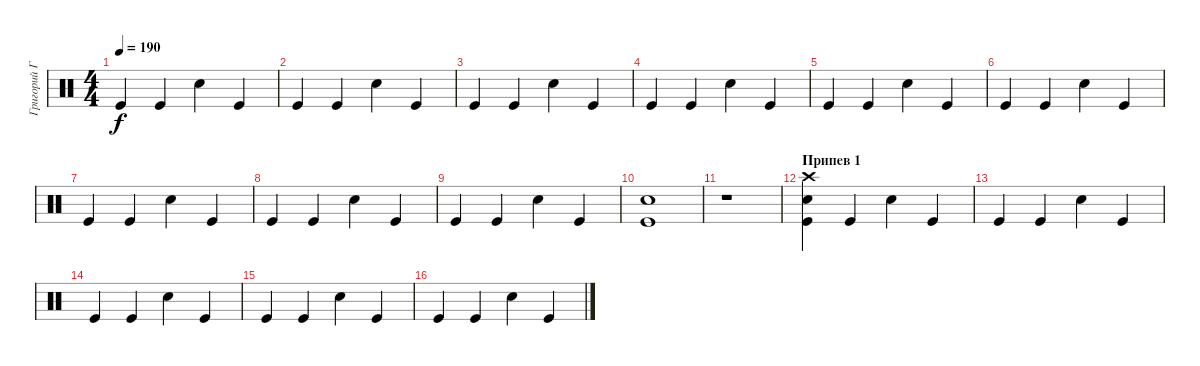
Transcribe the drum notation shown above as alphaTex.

\track ("Григорий Габерман" "Григорий Г") {instrument percussion}
\staff {score}
\articulation defaults
\ts (4 4)
\tempo 190
\clef neutral
\ks c "Kick (hit)".4{dy f} "Kick (hit)".4 "Snare (hit) 2".4 "Kick (hit)".4
|
"Kick (hit)".4 "Kick (hit)".4 "Snare (hit) 2".4 "Kick (hit)".4 |
"Kick (hit)".4 "Kick (hit)".4 "Snare (hit) 2".4 "Kick (hit)".4 |
"Kick (hit)".4 "Kick (hit)".4 "Snare (hit) 2".4 "Kick (hit)".4 |
"Kick (hit)".4 "Kick (hit)".4 "Snare (hit) 2".4 "Kick (hit)".4 |
"Kick (hit)".4 "Kick (hit)".4 "Snare (hit) 2".4 "Kick (hit)".4 |
"Kick (hit)".4 "Kick (hit)".4 "Snare (hit) 2".4 "Kick (hit)".4 |
"Kick (hit)".4 "Kick (hit)".4 "Snare (hit) 2".4 "Kick (hit)".4 |
"Kick (hit)".4 "Kick (hit)".4 "Snare (hit) 2".4 "Kick (hit)".4 |
("Kick (hit)" "Snare (hit) 2").1 |
r.1 |
\section ("" "Припев 1")
("Crash high (hit)" "Kick (hit)" "Snare (hit) 2").4 "Kick (hit)".4 "Snare (hit) 2".4 "Kick (hit)".4 |
"Kick (hit)".4 "Kick (hit)".4 "Snare (hit) 2".4 "Kick (hit)".4 |
"Kick (hit)".4 "Kick (hit)".4 "Snare (hit) 2".4 "Kick (hit)".4 |
"Kick (hit)".4 "Kick (hit)".4 "Snare (hit) 2".4 "Kick (hit)".4 |
"Kick (hit)".4 "Kick (hit)".4 "Snare (hit) 2".4 "Kick (hit)".4
